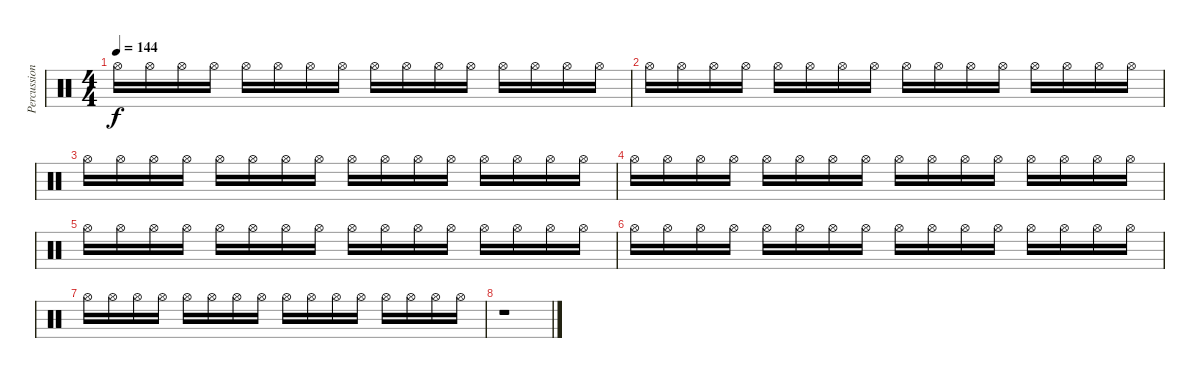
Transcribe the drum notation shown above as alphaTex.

\track ("Percussion" "Percussion") {instrument percussion}
\staff {score}
\articulation defaults
\ts (4 4)
\tempo 144
\clef neutral
\ks c "Hi-Hat (open)".16{dy f} "Hi-Hat (open)".16 "Hi-Hat (open)".16 "Hi-Hat (open)".16 "Hi-Hat (open)".16 "Hi-Hat (open)".16 "Hi-Hat (open)".16 "Hi-Hat (open)".16 "Hi-Hat (open)".16 "Hi-Hat (open)".16 "Hi-Hat (open)".16 "Hi-Hat (open)".16 "Hi-Hat (open)".16 "Hi-Hat (open)".16 "Hi-Hat (open)".16 "Hi-Hat (open)".16
|
"Hi-Hat (open)".16 "Hi-Hat (open)".16 "Hi-Hat (open)".16 "Hi-Hat (open)".16 "Hi-Hat (open)".16 "Hi-Hat (open)".16 "Hi-Hat (open)".16 "Hi-Hat (open)".16 "Hi-Hat (open)".16 "Hi-Hat (open)".16 "Hi-Hat (open)".16 "Hi-Hat (open)".16 "Hi-Hat (open)".16 "Hi-Hat (open)".16 "Hi-Hat (open)".16 "Hi-Hat (open)".16 |
"Hi-Hat (open)".16 "Hi-Hat (open)".16 "Hi-Hat (open)".16 "Hi-Hat (open)".16 "Hi-Hat (open)".16 "Hi-Hat (open)".16 "Hi-Hat (open)".16 "Hi-Hat (open)".16 "Hi-Hat (open)".16 "Hi-Hat (open)".16 "Hi-Hat (open)".16 "Hi-Hat (open)".16 "Hi-Hat (open)".16 "Hi-Hat (open)".16 "Hi-Hat (open)".16 "Hi-Hat (open)".16 |
"Hi-Hat (open)".16 "Hi-Hat (open)".16 "Hi-Hat (open)".16 "Hi-Hat (open)".16 "Hi-Hat (open)".16 "Hi-Hat (open)".16 "Hi-Hat (open)".16 "Hi-Hat (open)".16 "Hi-Hat (open)".16 "Hi-Hat (open)".16 "Hi-Hat (open)".16 "Hi-Hat (open)".16 "Hi-Hat (open)".16 "Hi-Hat (open)".16 "Hi-Hat (open)".16 "Hi-Hat (open)".16 |
"Hi-Hat (open)".16 "Hi-Hat (open)".16 "Hi-Hat (open)".16 "Hi-Hat (open)".16 "Hi-Hat (open)".16 "Hi-Hat (open)".16 "Hi-Hat (open)".16 "Hi-Hat (open)".16 "Hi-Hat (open)".16 "Hi-Hat (open)".16 "Hi-Hat (open)".16 "Hi-Hat (open)".16 "Hi-Hat (open)".16 "Hi-Hat (open)".16 "Hi-Hat (open)".16 "Hi-Hat (open)".16 |
"Hi-Hat (open)".16 "Hi-Hat (open)".16 "Hi-Hat (open)".16 "Hi-Hat (open)".16 "Hi-Hat (open)".16 "Hi-Hat (open)".16 "Hi-Hat (open)".16 "Hi-Hat (open)".16 "Hi-Hat (open)".16 "Hi-Hat (open)".16 "Hi-Hat (open)".16 "Hi-Hat (open)".16 "Hi-Hat (open)".16 "Hi-Hat (open)".16 "Hi-Hat (open)".16 "Hi-Hat (open)".16 |
"Hi-Hat (open)".16 "Hi-Hat (open)".16 "Hi-Hat (open)".16 "Hi-Hat (open)".16 "Hi-Hat (open)".16 "Hi-Hat (open)".16 "Hi-Hat (open)".16 "Hi-Hat (open)".16 "Hi-Hat (open)".16 "Hi-Hat (open)".16 "Hi-Hat (open)".16 "Hi-Hat (open)".16 "Hi-Hat (open)".16 "Hi-Hat (open)".16 "Hi-Hat (open)".16 "Hi-Hat (open)".16 |
r.1
